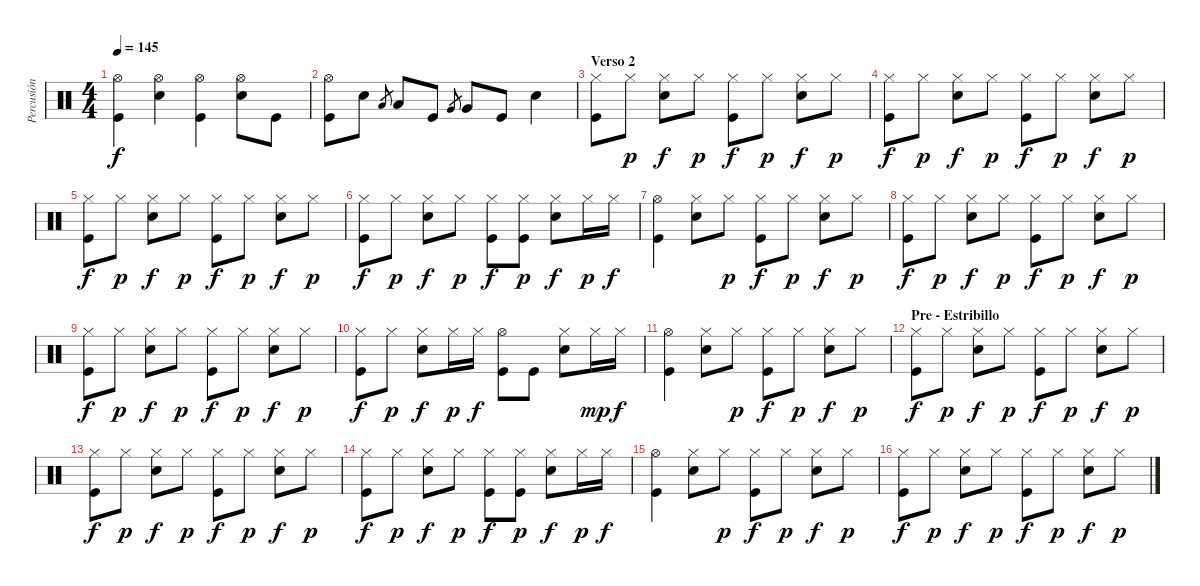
\track ("Percusión" "Percusión") {instrument percussion}
\staff {score}
\articulation defaults
\ts (4 4)
\tempo 145
\clef neutral
\ks c
("Hi-Hat (open)" "Kick (hit)").4{dy f} ("Hi-Hat (open)" "Snare (hit) 2").4 ("Hi-Hat (open)" "Kick (hit)").4 ("Hi-Hat (open)" "Snare (hit) 2").8 "Kick (hit)".8 |
("Hi-Hat (open)" "Kick (hit)").8 "Snare (hit) 2".8 "Low Tom (hit)".8{gr} "Low Tom (hit)".8 "Kick (hit)".8 "Very Low Tom (hit)".8{gr} "Very Low Tom (hit)".8 "Kick (hit)".8 "Snare (hit) 2".4 |
\section ("" "Verso 2")
("Hi-Hat (closed)" "Kick (hit)").8 "Hi-Hat (closed)".8{dy p} ("Hi-Hat (closed)" "Snare (hit) 2").8{dy f} "Hi-Hat (closed)".8{dy p} ("Hi-Hat (closed)" "Kick (hit)").8{dy f} "Hi-Hat (closed)".8{dy p} ("Hi-Hat (closed)" "Snare (hit) 2").8{dy f} "Hi-Hat (closed)".8{dy p} |
("Hi-Hat (closed)" "Kick (hit)").8{dy f} "Hi-Hat (closed)".8{dy p} ("Hi-Hat (closed)" "Snare (hit) 2").8{dy f} "Hi-Hat (closed)".8{dy p} ("Hi-Hat (closed)" "Kick (hit)").8{dy f} "Hi-Hat (closed)".8{dy p} ("Hi-Hat (closed)" "Snare (hit) 2").8{dy f} "Hi-Hat (closed)".8{dy p} |
("Hi-Hat (closed)" "Kick (hit)").8{dy f} "Hi-Hat (closed)".8{dy p} ("Hi-Hat (closed)" "Snare (hit) 2").8{dy f} "Hi-Hat (closed)".8{dy p} ("Hi-Hat (closed)" "Kick (hit)").8{dy f} "Hi-Hat (closed)".8{dy p} ("Hi-Hat (closed)" "Snare (hit) 2").8{dy f} "Hi-Hat (closed)".8{dy p} |
("Hi-Hat (closed)" "Kick (hit)").8{dy f} "Hi-Hat (closed)".8{dy p} ("Hi-Hat (closed)" "Snare (hit) 2").8{dy f} "Hi-Hat (closed)".8{dy p} ("Hi-Hat (closed)" "Kick (hit)").8{dy f} ("Hi-Hat (closed)" "Kick (hit)").8{dy p} ("Hi-Hat (closed)" "Snare (hit) 2").8{dy f} "Hi-Hat (closed)".16{dy p} "Hi-Hat (closed)".16{dy f} |
("Hi-Hat (open)" "Kick (hit)").4 ("Hi-Hat (closed)" "Snare (hit) 2").8 "Hi-Hat (closed)".8{dy p} ("Hi-Hat (closed)" "Kick (hit)").8{dy f} "Hi-Hat (closed)".8{dy p} ("Hi-Hat (closed)" "Snare (hit) 2").8{dy f} "Hi-Hat (closed)".8{dy p} |
("Hi-Hat (closed)" "Kick (hit)").8{dy f} "Hi-Hat (closed)".8{dy p} ("Hi-Hat (closed)" "Snare (hit) 2").8{dy f} "Hi-Hat (closed)".8{dy p} ("Hi-Hat (closed)" "Kick (hit)").8{dy f} "Hi-Hat (closed)".8{dy p} ("Hi-Hat (closed)" "Snare (hit) 2").8{dy f} "Hi-Hat (closed)".8{dy p} |
("Hi-Hat (closed)" "Kick (hit)").8{dy f} "Hi-Hat (closed)".8{dy p} ("Hi-Hat (closed)" "Snare (hit) 2").8{dy f} "Hi-Hat (closed)".8{dy p} ("Hi-Hat (closed)" "Kick (hit)").8{dy f} "Hi-Hat (closed)".8{dy p} ("Hi-Hat (closed)" "Snare (hit) 2").8{dy f} "Hi-Hat (closed)".8{dy p} |
("Hi-Hat (closed)" "Kick (hit)").8{dy f} "Hi-Hat (closed)".8{dy p} ("Hi-Hat (closed)" "Snare (hit) 2").8{dy f} "Hi-Hat (closed)".16{dy p} "Hi-Hat (closed)".16{dy f} ("Hi-Hat (open)" "Kick (hit)").8 "Kick (hit)".8 ("Hi-Hat (closed)" "Snare (hit) 2").8 "Hi-Hat (closed)".16{dy mp} "Hi-Hat (closed)".16{dy f} |
("Hi-Hat (open)" "Kick (hit)").4 ("Hi-Hat (closed)" "Snare (hit) 2").8 "Hi-Hat (closed)".8{dy p} ("Hi-Hat (closed)" "Kick (hit)").8{dy f} "Hi-Hat (closed)".8{dy p} ("Hi-Hat (closed)" "Snare (hit) 2").8{dy f} "Hi-Hat (closed)".8{dy p} |
\section ("" "Pre - Estribillo")
("Hi-Hat (closed)" "Kick (hit)").8{dy f} "Hi-Hat (closed)".8{dy p} ("Hi-Hat (closed)" "Snare (hit) 2").8{dy f} "Hi-Hat (closed)".8{dy p} ("Hi-Hat (closed)" "Kick (hit)").8{dy f} "Hi-Hat (closed)".8{dy p} ("Hi-Hat (closed)" "Snare (hit) 2").8{dy f} "Hi-Hat (closed)".8{dy p} |
("Hi-Hat (closed)" "Kick (hit)").8{dy f} "Hi-Hat (closed)".8{dy p} ("Hi-Hat (closed)" "Snare (hit) 2").8{dy f} "Hi-Hat (closed)".8{dy p} ("Hi-Hat (closed)" "Kick (hit)").8{dy f} "Hi-Hat (closed)".8{dy p} ("Hi-Hat (closed)" "Snare (hit) 2").8{dy f} "Hi-Hat (closed)".8{dy p} |
("Hi-Hat (closed)" "Kick (hit)").8{dy f} "Hi-Hat (closed)".8{dy p} ("Hi-Hat (closed)" "Snare (hit) 2").8{dy f} "Hi-Hat (closed)".8{dy p} ("Hi-Hat (closed)" "Kick (hit)").8{dy f} ("Hi-Hat (closed)" "Kick (hit)").8{dy p} ("Hi-Hat (closed)" "Snare (hit) 2").8{dy f} "Hi-Hat (closed)".16{dy p} "Hi-Hat (closed)".16{dy f} |
("Hi-Hat (open)" "Kick (hit)").4 ("Hi-Hat (closed)" "Snare (hit) 2").8 "Hi-Hat (closed)".8{dy p} ("Hi-Hat (closed)" "Kick (hit)").8{dy f} "Hi-Hat (closed)".8{dy p} ("Hi-Hat (closed)" "Snare (hit) 2").8{dy f} "Hi-Hat (closed)".8{dy p} |
("Hi-Hat (closed)" "Kick (hit)").8{dy f} "Hi-Hat (closed)".8{dy p} ("Hi-Hat (closed)" "Snare (hit) 2").8{dy f} "Hi-Hat (closed)".8{dy p} ("Hi-Hat (closed)" "Kick (hit)").8{dy f} "Hi-Hat (closed)".8{dy p} ("Hi-Hat (closed)" "Snare (hit) 2").8{dy f} "Hi-Hat (closed)".8{dy p}
